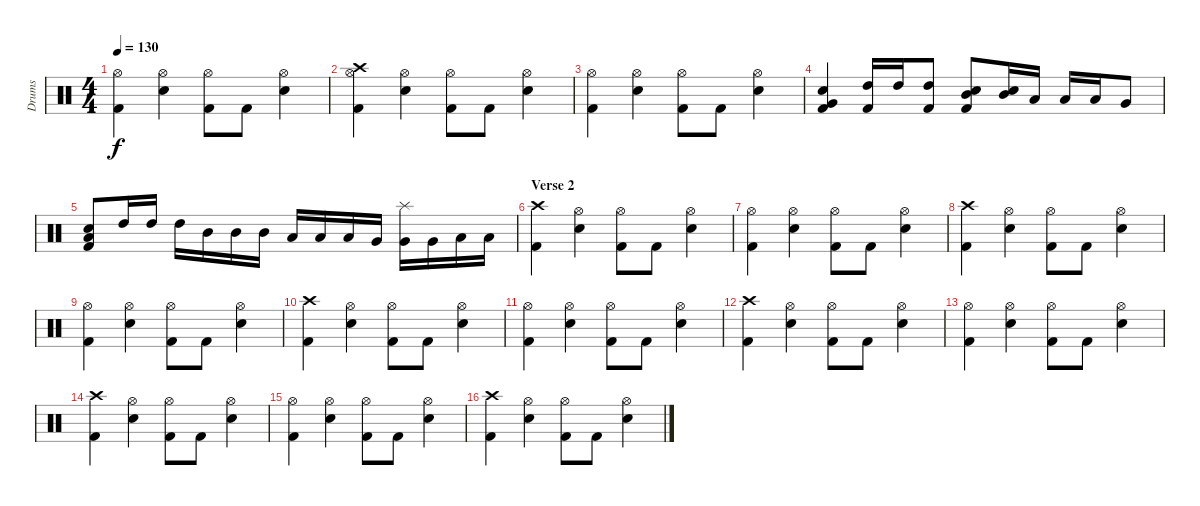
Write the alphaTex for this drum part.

\track ("Drums" "Drums") {instrument percussion}
\staff {score}
\articulation defaults
\ts (4 4)
\tempo 130
\clef neutral
\ks c
("Kick (hit) 2" "Hi-Hat (open)").4{dy f} ("Snare (hit) 2" "Hi-Hat (open)").4 ("Kick (hit) 2" "Hi-Hat (open)").8 "Kick (hit) 2".8 ("Snare (hit) 2" "Hi-Hat (open)").4 |
("Kick (hit) 2" "Hi-Hat (open)" "Crash high (hit)").4 ("Snare (hit) 2" "Hi-Hat (open)").4 ("Kick (hit) 2" "Hi-Hat (open)").8 "Kick (hit) 2".8 ("Snare (hit) 2" "Hi-Hat (open)").4 |
("Kick (hit) 2" "Hi-Hat (open)").4 ("Snare (hit) 2" "Hi-Hat (open)").4 ("Kick (hit) 2" "Hi-Hat (open)").8 "Kick (hit) 2".8 ("Snare (hit) 2" "Hi-Hat (open)").4 |
("Very Low Tom (hit)" "Kick (hit) 2" "Snare (hit) 2").4 ("High Tom (hit)" "Kick (hit) 2").16 "High Tom (hit)".16 ("High Tom (hit)" "Kick (hit) 2").8 ("Mid Tom (hit)" "Kick (hit) 2" "Snare (hit) 2").8 ("Mid Tom (hit)" "Snare (hit) 2").16 "Low Tom (hit)".16 "Low Tom (hit)".16 "Low Tom (hit)".16 "Very Low Tom (hit)".8 |
("Low Floor Tom (hit)" "Kick (hit) 2" "Snare (hit) 2").8 "High Tom (hit)".16 "High Tom (hit)".16 "High Tom (hit)".16 "Mid Tom (hit)".16 "Mid Tom (hit)".16 "Mid Tom (hit)".16 "Low Tom (hit)".16 "Low Tom (hit)".16 "Low Tom (hit)".16 "Very Low Tom (hit)".16 ("Very Low Tom (hit)" "Splash (hit)").16 "Very Low Tom (hit)".16 "Low Floor Tom (hit)".16 "Low Floor Tom (hit)".16 |
\section ("" "Verse 2")
("Kick (hit) 2" "Crash high (hit)").4 ("Snare (hit) 2" "Hi-Hat (open)").4 ("Kick (hit) 2" "Hi-Hat (open)").8 "Kick (hit) 2".8 ("Snare (hit) 2" "Hi-Hat (open)").4 |
("Kick (hit) 2" "Hi-Hat (open)").4 ("Snare (hit) 2" "Hi-Hat (open)").4 ("Kick (hit) 2" "Hi-Hat (open)").8 "Kick (hit) 2".8 ("Snare (hit) 2" "Hi-Hat (open)").4 |
("Kick (hit) 2" "Crash high (hit)").4 ("Snare (hit) 2" "Hi-Hat (open)").4 ("Kick (hit) 2" "Hi-Hat (open)").8 "Kick (hit) 2".8 ("Snare (hit) 2" "Hi-Hat (open)").4 |
("Kick (hit) 2" "Hi-Hat (open)").4 ("Snare (hit) 2" "Hi-Hat (open)").4 ("Kick (hit) 2" "Hi-Hat (open)").8 "Kick (hit) 2".8 ("Snare (hit) 2" "Hi-Hat (open)").4 |
("Kick (hit) 2" "Crash high (hit)").4 ("Snare (hit) 2" "Hi-Hat (open)").4 ("Kick (hit) 2" "Hi-Hat (open)").8 "Kick (hit) 2".8 ("Snare (hit) 2" "Hi-Hat (open)").4 |
("Kick (hit) 2" "Hi-Hat (open)").4 ("Snare (hit) 2" "Hi-Hat (open)").4 ("Kick (hit) 2" "Hi-Hat (open)").8 "Kick (hit) 2".8 ("Snare (hit) 2" "Hi-Hat (open)").4 |
("Kick (hit) 2" "Crash high (hit)").4 ("Snare (hit) 2" "Hi-Hat (open)").4 ("Kick (hit) 2" "Hi-Hat (open)").8 "Kick (hit) 2".8 ("Snare (hit) 2" "Hi-Hat (open)").4 |
("Kick (hit) 2" "Hi-Hat (open)").4 ("Snare (hit) 2" "Hi-Hat (open)").4 ("Kick (hit) 2" "Hi-Hat (open)").8 "Kick (hit) 2".8 ("Snare (hit) 2" "Hi-Hat (open)").4 |
("Kick (hit) 2" "Crash high (hit)").4 ("Snare (hit) 2" "Hi-Hat (open)").4 ("Kick (hit) 2" "Hi-Hat (open)").8 "Kick (hit) 2".8 ("Snare (hit) 2" "Hi-Hat (open)").4 |
("Kick (hit) 2" "Hi-Hat (open)").4 ("Snare (hit) 2" "Hi-Hat (open)").4 ("Kick (hit) 2" "Hi-Hat (open)").8 "Kick (hit) 2".8 ("Snare (hit) 2" "Hi-Hat (open)").4 |
("Kick (hit) 2" "Crash high (hit)").4 ("Snare (hit) 2" "Hi-Hat (open)").4 ("Kick (hit) 2" "Hi-Hat (open)").8 "Kick (hit) 2".8 ("Snare (hit) 2" "Hi-Hat (open)").4
